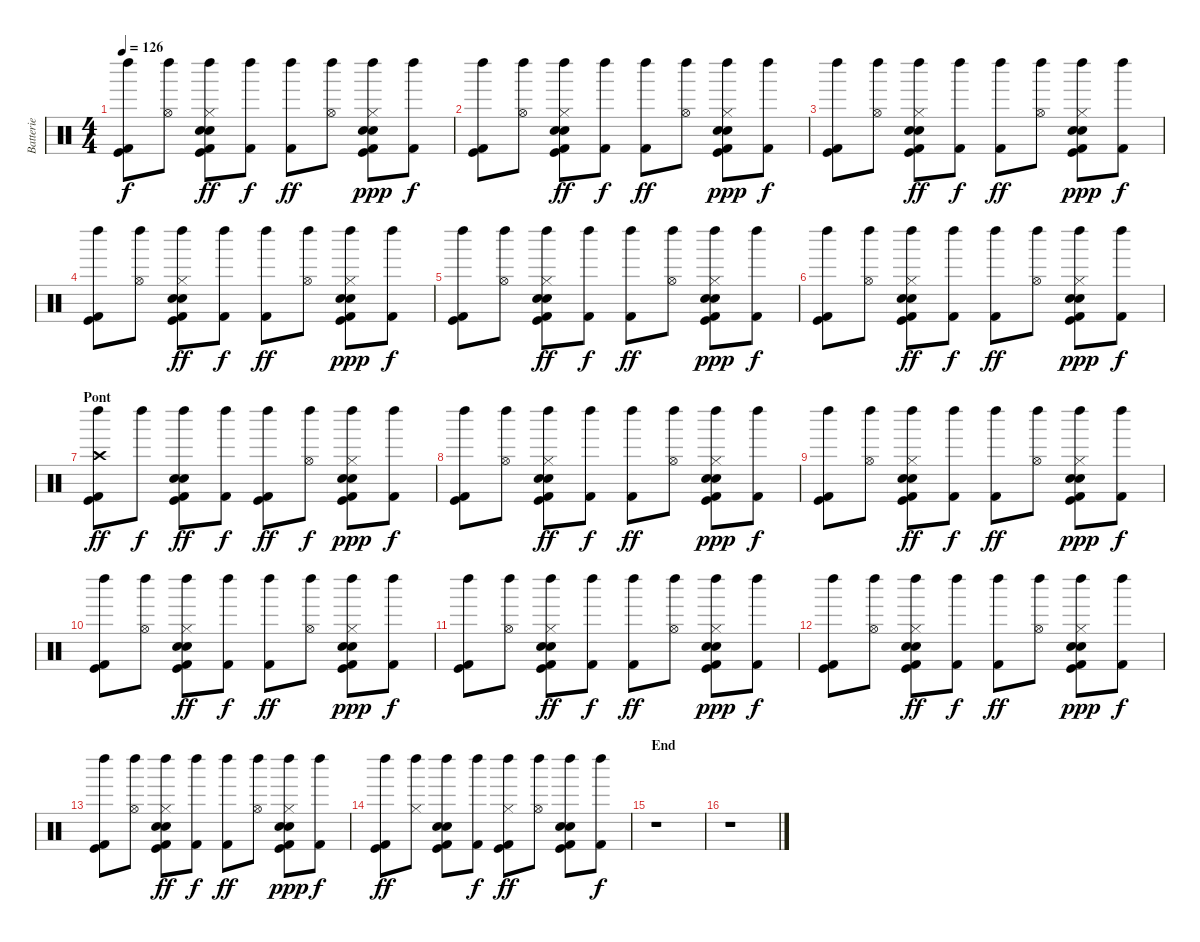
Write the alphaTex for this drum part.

\track ("Batterie" "Batterie") {instrument percussion}
\staff {score}
\articulation defaults
\ts (4 4)
\tempo 126
\clef neutral
\ks c
("Left Maraca (hit)" "Kick (hit)" "Kick (hit) 2").8{dy f} ("Left Maraca (hit)" "Hi-Hat (open)").8 ("Left Maraca (hit)" "Hi-Hat (closed)" "Electric Snare (hit)" "Hand Clap (hit)" "Kick (hit)" "Kick (hit) 2").8{dy ff} ("Left Maraca (hit)" "Kick (hit) 2").8{dy f} ("Left Maraca (hit)" "Kick (hit) 2").8{dy ff} ("Left Maraca (hit)" "Hi-Hat (open)").8 ("Left Maraca (hit)" "Hi-Hat (closed)" "Electric Snare (hit)" "Hand Clap (hit)" "Kick (hit)" "Kick (hit) 2").8{dy ppp} ("Left Maraca (hit)" "Kick (hit) 2").8{dy f} |
("Left Maraca (hit)" "Kick (hit)" "Kick (hit) 2").8 ("Left Maraca (hit)" "Hi-Hat (open)").8 ("Left Maraca (hit)" "Hi-Hat (closed)" "Electric Snare (hit)" "Hand Clap (hit)" "Kick (hit)" "Kick (hit) 2").8{dy ff} ("Left Maraca (hit)" "Kick (hit) 2").8{dy f} ("Left Maraca (hit)" "Kick (hit) 2").8{dy ff} ("Left Maraca (hit)" "Hi-Hat (open)").8 ("Left Maraca (hit)" "Hi-Hat (closed)" "Electric Snare (hit)" "Hand Clap (hit)" "Kick (hit)" "Kick (hit) 2").8{dy ppp} ("Left Maraca (hit)" "Kick (hit) 2").8{dy f} |
("Left Maraca (hit)" "Kick (hit)" "Kick (hit) 2").8 ("Left Maraca (hit)" "Hi-Hat (open)").8 ("Left Maraca (hit)" "Hi-Hat (closed)" "Electric Snare (hit)" "Hand Clap (hit)" "Kick (hit)" "Kick (hit) 2").8{dy ff} ("Left Maraca (hit)" "Kick (hit) 2").8{dy f} ("Left Maraca (hit)" "Kick (hit) 2").8{dy ff} ("Left Maraca (hit)" "Hi-Hat (open)").8 ("Left Maraca (hit)" "Hi-Hat (closed)" "Electric Snare (hit)" "Hand Clap (hit)" "Kick (hit)" "Kick (hit) 2").8{dy ppp} ("Left Maraca (hit)" "Kick (hit) 2").8{dy f} |
("Left Maraca (hit)" "Kick (hit)" "Kick (hit) 2").8 ("Left Maraca (hit)" "Hi-Hat (open)").8 ("Left Maraca (hit)" "Hi-Hat (closed)" "Electric Snare (hit)" "Hand Clap (hit)" "Kick (hit)" "Kick (hit) 2").8{dy ff} ("Left Maraca (hit)" "Kick (hit) 2").8{dy f} ("Left Maraca (hit)" "Kick (hit) 2").8{dy ff} ("Left Maraca (hit)" "Hi-Hat (open)").8 ("Left Maraca (hit)" "Hi-Hat (closed)" "Electric Snare (hit)" "Hand Clap (hit)" "Kick (hit)" "Kick (hit) 2").8{dy ppp} ("Left Maraca (hit)" "Kick (hit) 2").8{dy f} |
("Left Maraca (hit)" "Kick (hit)" "Kick (hit) 2").8 ("Left Maraca (hit)" "Hi-Hat (open)").8 ("Left Maraca (hit)" "Hi-Hat (closed)" "Electric Snare (hit)" "Hand Clap (hit)" "Kick (hit)" "Kick (hit) 2").8{dy ff} ("Left Maraca (hit)" "Kick (hit) 2").8{dy f} ("Left Maraca (hit)" "Kick (hit) 2").8{dy ff} ("Left Maraca (hit)" "Hi-Hat (open)").8 ("Left Maraca (hit)" "Hi-Hat (closed)" "Electric Snare (hit)" "Hand Clap (hit)" "Kick (hit)" "Kick (hit) 2").8{dy ppp} ("Left Maraca (hit)" "Kick (hit) 2").8{dy f} |
("Left Maraca (hit)" "Kick (hit)" "Kick (hit) 2").8 ("Left Maraca (hit)" "Hi-Hat (open)").8 ("Left Maraca (hit)" "Hi-Hat (closed)" "Electric Snare (hit)" "Hand Clap (hit)" "Kick (hit)" "Kick (hit) 2").8{dy ff} ("Left Maraca (hit)" "Kick (hit) 2").8{dy f} ("Left Maraca (hit)" "Kick (hit) 2").8{dy ff} ("Left Maraca (hit)" "Hi-Hat (open)").8 ("Left Maraca (hit)" "Hi-Hat (closed)" "Electric Snare (hit)" "Hand Clap (hit)" "Kick (hit)" "Kick (hit) 2").8{dy ppp} ("Left Maraca (hit)" "Kick (hit) 2").8{dy f} |
\section ("" "Pont")
("Kick (hit)" "Kick (hit) 2" "Crash high (hit)" "Left Maraca (hit)").8{dy ff} "Left Maraca (hit)".8{dy f} ("Kick (hit)" "Kick (hit) 2" "Hand Clap (hit)" "Electric Snare (hit)" "Left Maraca (hit)").8{dy ff} ("Kick (hit) 2" "Left Maraca (hit)").8{dy f} ("Kick (hit)" "Kick (hit) 2" "Left Maraca (hit)").8{dy ff} ("Hi-Hat (open)" "Left Maraca (hit)").8{dy f} ("Kick (hit)" "Kick (hit) 2" "Hand Clap (hit)" "Electric Snare (hit)" "Hi-Hat (closed)" "Left Maraca (hit)").8{dy ppp} ("Kick (hit) 2" "Left Maraca (hit)").8{dy f} |
("Left Maraca (hit)" "Kick (hit)" "Kick (hit) 2").8 ("Left Maraca (hit)" "Hi-Hat (open)").8 ("Left Maraca (hit)" "Hi-Hat (closed)" "Electric Snare (hit)" "Hand Clap (hit)" "Kick (hit)" "Kick (hit) 2").8{dy ff} ("Left Maraca (hit)" "Kick (hit) 2").8{dy f} ("Left Maraca (hit)" "Kick (hit) 2").8{dy ff} ("Left Maraca (hit)" "Hi-Hat (open)").8 ("Left Maraca (hit)" "Hi-Hat (closed)" "Electric Snare (hit)" "Hand Clap (hit)" "Kick (hit)" "Kick (hit) 2").8{dy ppp} ("Left Maraca (hit)" "Kick (hit) 2").8{dy f} |
("Left Maraca (hit)" "Kick (hit)" "Kick (hit) 2").8 ("Left Maraca (hit)" "Hi-Hat (open)").8 ("Left Maraca (hit)" "Hi-Hat (closed)" "Electric Snare (hit)" "Hand Clap (hit)" "Kick (hit)" "Kick (hit) 2").8{dy ff} ("Left Maraca (hit)" "Kick (hit) 2").8{dy f} ("Left Maraca (hit)" "Kick (hit) 2").8{dy ff} ("Left Maraca (hit)" "Hi-Hat (open)").8 ("Left Maraca (hit)" "Hi-Hat (closed)" "Electric Snare (hit)" "Hand Clap (hit)" "Kick (hit)" "Kick (hit) 2").8{dy ppp} ("Left Maraca (hit)" "Kick (hit) 2").8{dy f} |
("Left Maraca (hit)" "Kick (hit)" "Kick (hit) 2").8 ("Left Maraca (hit)" "Hi-Hat (open)").8 ("Left Maraca (hit)" "Hi-Hat (closed)" "Electric Snare (hit)" "Hand Clap (hit)" "Kick (hit)" "Kick (hit) 2").8{dy ff} ("Left Maraca (hit)" "Kick (hit) 2").8{dy f} ("Left Maraca (hit)" "Kick (hit) 2").8{dy ff} ("Left Maraca (hit)" "Hi-Hat (open)").8 ("Left Maraca (hit)" "Hi-Hat (closed)" "Electric Snare (hit)" "Hand Clap (hit)" "Kick (hit)" "Kick (hit) 2").8{dy ppp} ("Left Maraca (hit)" "Kick (hit) 2").8{dy f} |
("Left Maraca (hit)" "Kick (hit)" "Kick (hit) 2").8 ("Left Maraca (hit)" "Hi-Hat (open)").8 ("Left Maraca (hit)" "Hi-Hat (closed)" "Electric Snare (hit)" "Hand Clap (hit)" "Kick (hit)" "Kick (hit) 2").8{dy ff} ("Left Maraca (hit)" "Kick (hit) 2").8{dy f} ("Left Maraca (hit)" "Kick (hit) 2").8{dy ff} ("Left Maraca (hit)" "Hi-Hat (open)").8 ("Left Maraca (hit)" "Hi-Hat (closed)" "Electric Snare (hit)" "Hand Clap (hit)" "Kick (hit)" "Kick (hit) 2").8{dy ppp} ("Left Maraca (hit)" "Kick (hit) 2").8{dy f} |
("Left Maraca (hit)" "Kick (hit)" "Kick (hit) 2").8 ("Left Maraca (hit)" "Hi-Hat (open)").8 ("Left Maraca (hit)" "Hi-Hat (closed)" "Electric Snare (hit)" "Hand Clap (hit)" "Kick (hit)" "Kick (hit) 2").8{dy ff} ("Left Maraca (hit)" "Kick (hit) 2").8{dy f} ("Left Maraca (hit)" "Kick (hit) 2").8{dy ff} ("Left Maraca (hit)" "Hi-Hat (open)").8 ("Left Maraca (hit)" "Hi-Hat (closed)" "Electric Snare (hit)" "Hand Clap (hit)" "Kick (hit)" "Kick (hit) 2").8{dy ppp} ("Left Maraca (hit)" "Kick (hit) 2").8{dy f} |
("Left Maraca (hit)" "Kick (hit)" "Kick (hit) 2").8 ("Left Maraca (hit)" "Hi-Hat (open)").8 ("Left Maraca (hit)" "Hi-Hat (closed)" "Electric Snare (hit)" "Hand Clap (hit)" "Kick (hit)" "Kick (hit) 2").8{dy ff} ("Left Maraca (hit)" "Kick (hit) 2").8{dy f} ("Left Maraca (hit)" "Kick (hit) 2").8{dy ff} ("Left Maraca (hit)" "Hi-Hat (open)").8 ("Left Maraca (hit)" "Hi-Hat (closed)" "Electric Snare (hit)" "Hand Clap (hit)" "Kick (hit)" "Kick (hit) 2").8{dy ppp} ("Left Maraca (hit)" "Kick (hit) 2").8{dy f} |
("Left Maraca (hit)" "Kick (hit)" "Kick (hit) 2").8{dy ff} ("Left Maraca (hit)" "Hi-Hat (closed)").8 ("Left Maraca (hit)" "Hand Clap (hit)" "Electric Snare (hit)" "Kick (hit)" "Kick (hit) 2").8 ("Left Maraca (hit)" "Kick (hit) 2").8{dy f} ("Left Maraca (hit)" "Hi-Hat (closed)" "Kick (hit)" "Kick (hit) 2").8{dy ff} ("Left Maraca (hit)" "Hi-Hat (open)").8 ("Left Maraca (hit)" "Hand Clap (hit)" "Electric Snare (hit)" "Kick (hit)" "Kick (hit) 2").8 ("Left Maraca (hit)" "Kick (hit) 2").8{dy f} |
\section ("" "End")
r.1 |
r.1
